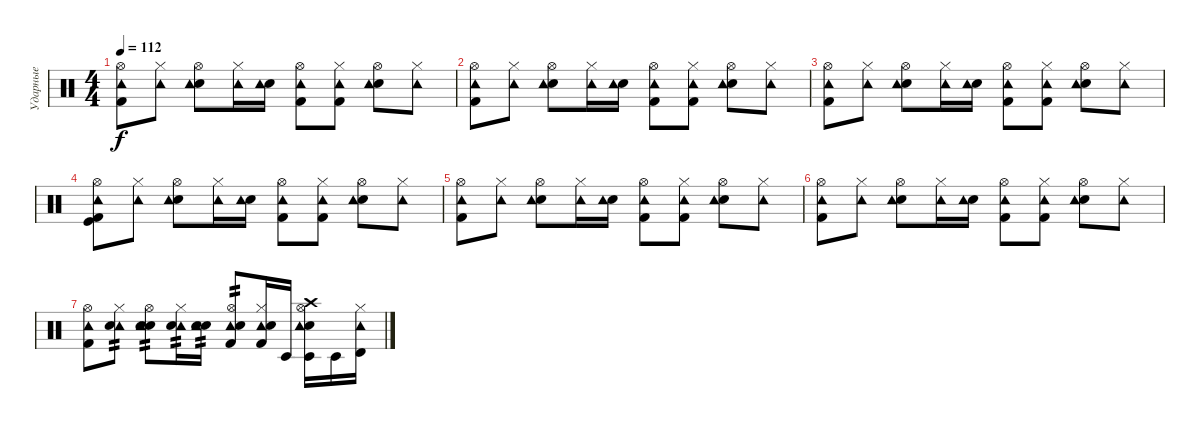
\track ("Ударные" "Ударные") {instrument percussion}
\staff {score}
\articulation defaults
\ts (4 4)
\tempo 112
\clef neutral
\ks c
("Hi-Hat (open)" "Kick (hit) 2" "Tambourine (hit)").8{dy f} ("Hi-Hat (closed)" "Tambourine (hit)").8 ("Hi-Hat (open)" "Electric Snare (hit)" "Tambourine (hit)").8 ("Hi-Hat (closed)" "Tambourine (hit)").16 ("Electric Snare (hit)" "Tambourine (hit)").16 ("Hi-Hat (open)" "Kick (hit) 2" "Tambourine (hit)").8 ("Hi-Hat (closed)" "Kick (hit) 2" "Tambourine (hit)").8 ("Hi-Hat (open)" "Electric Snare (hit)" "Tambourine (hit)").8 ("Hi-Hat (closed)" "Tambourine (hit)").8 |
("Hi-Hat (open)" "Kick (hit) 2" "Tambourine (hit)").8 ("Hi-Hat (closed)" "Tambourine (hit)").8 ("Hi-Hat (open)" "Electric Snare (hit)" "Tambourine (hit)").8 ("Hi-Hat (closed)" "Tambourine (hit)").16 ("Electric Snare (hit)" "Tambourine (hit)").16 ("Hi-Hat (open)" "Kick (hit) 2" "Tambourine (hit)").8 ("Hi-Hat (closed)" "Kick (hit) 2" "Tambourine (hit)").8 ("Hi-Hat (open)" "Electric Snare (hit)" "Tambourine (hit)").8 ("Hi-Hat (closed)" "Tambourine (hit)").8 |
("Hi-Hat (open)" "Kick (hit) 2" "Tambourine (hit)").8 ("Hi-Hat (closed)" "Tambourine (hit)").8 ("Hi-Hat (open)" "Electric Snare (hit)" "Tambourine (hit)").8 ("Hi-Hat (closed)" "Tambourine (hit)").16 ("Electric Snare (hit)" "Tambourine (hit)").16 ("Hi-Hat (open)" "Kick (hit) 2" "Tambourine (hit)").8 ("Hi-Hat (closed)" "Kick (hit) 2" "Tambourine (hit)").8 ("Hi-Hat (open)" "Electric Snare (hit)" "Tambourine (hit)").8 ("Hi-Hat (closed)" "Tambourine (hit)").8 |
("Hi-Hat (open)" "Kick (hit) 2" "Tambourine (hit)" "Kick (hit)").8 ("Hi-Hat (closed)" "Tambourine (hit)").8 ("Hi-Hat (open)" "Electric Snare (hit)" "Tambourine (hit)").8 ("Hi-Hat (closed)" "Tambourine (hit)").16 ("Electric Snare (hit)" "Tambourine (hit)").16 ("Hi-Hat (open)" "Kick (hit) 2" "Tambourine (hit)").8 ("Hi-Hat (closed)" "Kick (hit) 2" "Tambourine (hit)").8 ("Hi-Hat (open)" "Electric Snare (hit)" "Tambourine (hit)").8 ("Hi-Hat (closed)" "Tambourine (hit)").8 |
("Hi-Hat (open)" "Kick (hit) 2" "Tambourine (hit)").8 ("Hi-Hat (closed)" "Tambourine (hit)").8 ("Hi-Hat (open)" "Electric Snare (hit)" "Tambourine (hit)").8 ("Hi-Hat (closed)" "Tambourine (hit)").16 ("Electric Snare (hit)" "Tambourine (hit)").16 ("Hi-Hat (open)" "Kick (hit) 2" "Tambourine (hit)").8 ("Hi-Hat (closed)" "Kick (hit) 2" "Tambourine (hit)").8 ("Hi-Hat (open)" "Electric Snare (hit)" "Tambourine (hit)").8 ("Hi-Hat (closed)" "Tambourine (hit)").8 |
("Hi-Hat (open)" "Kick (hit) 2" "Tambourine (hit)").8 ("Hi-Hat (closed)" "Tambourine (hit)").8 ("Hi-Hat (open)" "Electric Snare (hit)" "Tambourine (hit)").8 ("Hi-Hat (closed)" "Tambourine (hit)").16 ("Electric Snare (hit)" "Tambourine (hit)").16 ("Hi-Hat (open)" "Kick (hit) 2" "Tambourine (hit)").8 ("Hi-Hat (closed)" "Kick (hit) 2" "Tambourine (hit)").8 ("Hi-Hat (open)" "Electric Snare (hit)" "Tambourine (hit)").8 ("Hi-Hat (closed)" "Tambourine (hit)").8 |
("Hi-Hat (open)" "Kick (hit) 2" "Tambourine (hit)").8 ("Hi-Hat (closed)" "Tambourine (hit)" "Electric Snare (hit)").8{tp 2} ("Hi-Hat (open)" "Electric Snare (hit)" "Tambourine (hit)" "Electric Snare (hit)").8{tp 2} ("Hi-Hat (closed)" "Tambourine (hit)" "Electric Snare (hit)").16{tp 2} ("Electric Snare (hit)" "Tambourine (hit)" "Electric Snare (hit)").16{tp 2} ("Hi-Hat (open)" "Kick (hit) 2" "Tambourine (hit)" "Electric Snare (hit)").8{tp 2} ("Hi-Hat (closed)" "Kick (hit) 2" "Tambourine (hit)" "Electric Snare (hit)").16 "Timbale low (hit)".16 ("Hi-Hat (open)" "Electric Snare (hit)" "Tambourine (hit)" "Crash high (hit)" "Timbale low (hit)").16 "Timbale low (hit)".16 ("Hi-Hat (closed)" "Tambourine (hit)" "Timbale high (hit)").16
